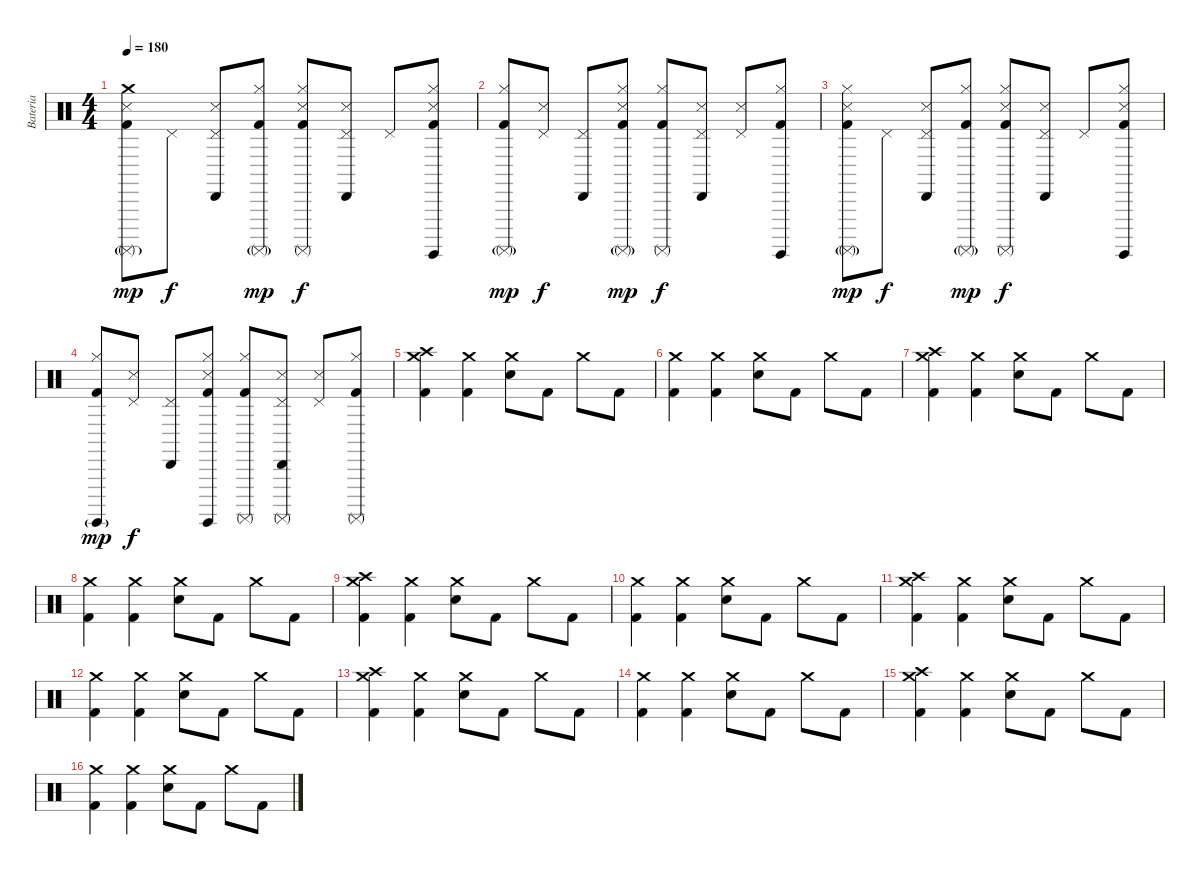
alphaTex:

\track ("Bateria" "Bateria") {instrument percussion}
\staff {score}
\articulation defaults
\ts (4 4)
\tempo 180
\clef neutral
\ks c
("Crash medium (hit)" "Snare (side stick) 3" "Surdo (mute)"{g} "Kick (hit) 2").8{dy mp} "Pedal Hi-Hat (hit)".8{dy f} ("Pedal Hi-Hat (hit)" "Cabasa (hit)" "Snare (side stick) 3").8 ("Hi-Hat (closed)" "Surdo (mute)"{g} "Kick (hit) 2").8{dy mp} ("Hi-Hat (closed)" "Snare (side stick) 3" "Surdo (mute)" "Kick (hit) 2").8{dy f} ("Pedal Hi-Hat (hit)" "Cabasa (hit)" "Snare (side stick) 3").8 "Pedal Hi-Hat (hit)".8 ("Hi-Hat (closed)" "Snare (side stick) 3" "Surdo (hit)" "Kick (hit) 2").8 |
("Hi-Hat (closed)" "Surdo (mute)"{g} "Kick (hit) 2").8{dy mp} ("Pedal Hi-Hat (hit)" "Snare (side stick) 3").8{dy f} ("Pedal Hi-Hat (hit)" "Cabasa (hit)").8 ("Hi-Hat (closed)" "Snare (side stick) 3" "Surdo (mute)"{g} "Kick (hit) 2").8{dy mp} ("Hi-Hat (closed)" "Surdo (mute)" "Kick (hit) 2").8{dy f} ("Pedal Hi-Hat (hit)" "Cabasa (hit)" "Snare (side stick) 3").8 ("Pedal Hi-Hat (hit)" "Snare (side stick) 3").8 ("Hi-Hat (closed)" "Surdo (hit)" "Kick (hit) 2").8 |
("Hi-Hat (closed)" "Snare (side stick) 3" "Surdo (mute)"{g} "Kick (hit) 2").8{dy mp} "Pedal Hi-Hat (hit)".8{dy f} ("Pedal Hi-Hat (hit)" "Cabasa (hit)" "Snare (side stick) 3").8 ("Hi-Hat (closed)" "Surdo (mute)"{g} "Kick (hit) 2").8{dy mp} ("Hi-Hat (closed)" "Snare (side stick) 3" "Surdo (mute)" "Kick (hit) 2").8{dy f} ("Pedal Hi-Hat (hit)" "Cabasa (hit)" "Snare (side stick) 3").8 "Pedal Hi-Hat (hit)".8 ("Hi-Hat (closed)" "Snare (side stick) 3" "Surdo (hit)" "Kick (hit) 2").8 |
("Hi-Hat (closed)" "Surdo (hit)"{g} "Kick (hit) 2").8{dy mp} ("Pedal Hi-Hat (hit)" "Snare (side stick) 3").8{dy f} ("Pedal Hi-Hat (hit)" "Cabasa (hit)").8 ("Hi-Hat (closed)" "Snare (side stick) 3" "Surdo (hit)" "Kick (hit) 2").8 ("Hi-Hat (closed)" "Surdo (mute)" "Kick (hit) 2").8 ("Pedal Hi-Hat (hit)" "Cabasa (hit)" "Snare (side stick) 3" "Surdo (mute)").8 ("Pedal Hi-Hat (hit)" "Snare (side stick) 3").8 ("Hi-Hat (closed)" "Surdo (mute)" "Kick (hit) 2").8 |
("Crash medium (hit)" "Crash high (hit)" "Kick (hit) 2").4 ("Crash medium (hit)" "Kick (hit) 2").4 ("Crash medium (hit)" "Electric Snare (hit)").8 "Kick (hit) 2".8 "Crash medium (hit)".8 "Kick (hit) 2".8 |
("Crash medium (hit)" "Kick (hit) 2").4 ("Crash medium (hit)" "Kick (hit) 2").4 ("Crash medium (hit)" "Electric Snare (hit)").8 "Kick (hit) 2".8 "Crash medium (hit)".8 "Kick (hit) 2".8 |
("Crash medium (hit)" "Crash high (hit)" "Kick (hit) 2").4 ("Crash medium (hit)" "Kick (hit) 2").4 ("Crash medium (hit)" "Electric Snare (hit)").8 "Kick (hit) 2".8 "Crash medium (hit)".8 "Kick (hit) 2".8 |
("Crash medium (hit)" "Kick (hit) 2").4 ("Crash medium (hit)" "Kick (hit) 2").4 ("Crash medium (hit)" "Electric Snare (hit)").8 "Kick (hit) 2".8 "Crash medium (hit)".8 "Kick (hit) 2".8 |
("Crash medium (hit)" "Crash high (hit)" "Kick (hit) 2").4 ("Crash medium (hit)" "Kick (hit) 2").4 ("Crash medium (hit)" "Electric Snare (hit)").8 "Kick (hit) 2".8 "Crash medium (hit)".8 "Kick (hit) 2".8 |
("Crash medium (hit)" "Kick (hit) 2").4 ("Crash medium (hit)" "Kick (hit) 2").4 ("Crash medium (hit)" "Electric Snare (hit)").8 "Kick (hit) 2".8 "Crash medium (hit)".8 "Kick (hit) 2".8 |
("Crash medium (hit)" "Crash high (hit)" "Kick (hit) 2").4 ("Crash medium (hit)" "Kick (hit) 2").4 ("Crash medium (hit)" "Electric Snare (hit)").8 "Kick (hit) 2".8 "Crash medium (hit)".8 "Kick (hit) 2".8 |
("Crash medium (hit)" "Kick (hit) 2").4 ("Crash medium (hit)" "Kick (hit) 2").4 ("Crash medium (hit)" "Electric Snare (hit)").8 "Kick (hit) 2".8 "Crash medium (hit)".8 "Kick (hit) 2".8 |
("Crash medium (hit)" "Crash high (hit)" "Kick (hit) 2").4 ("Crash medium (hit)" "Kick (hit) 2").4 ("Crash medium (hit)" "Electric Snare (hit)").8 "Kick (hit) 2".8 "Crash medium (hit)".8 "Kick (hit) 2".8 |
("Crash medium (hit)" "Kick (hit) 2").4 ("Crash medium (hit)" "Kick (hit) 2").4 ("Crash medium (hit)" "Electric Snare (hit)").8 "Kick (hit) 2".8 "Crash medium (hit)".8 "Kick (hit) 2".8 |
("Crash medium (hit)" "Crash high (hit)" "Kick (hit) 2").4 ("Crash medium (hit)" "Kick (hit) 2").4 ("Crash medium (hit)" "Electric Snare (hit)").8 "Kick (hit) 2".8 "Crash medium (hit)".8 "Kick (hit) 2".8 |
("Crash medium (hit)" "Kick (hit) 2").4 ("Crash medium (hit)" "Kick (hit) 2").4 ("Crash medium (hit)" "Electric Snare (hit)").8 "Kick (hit) 2".8 "Crash medium (hit)".8 "Kick (hit) 2".8
